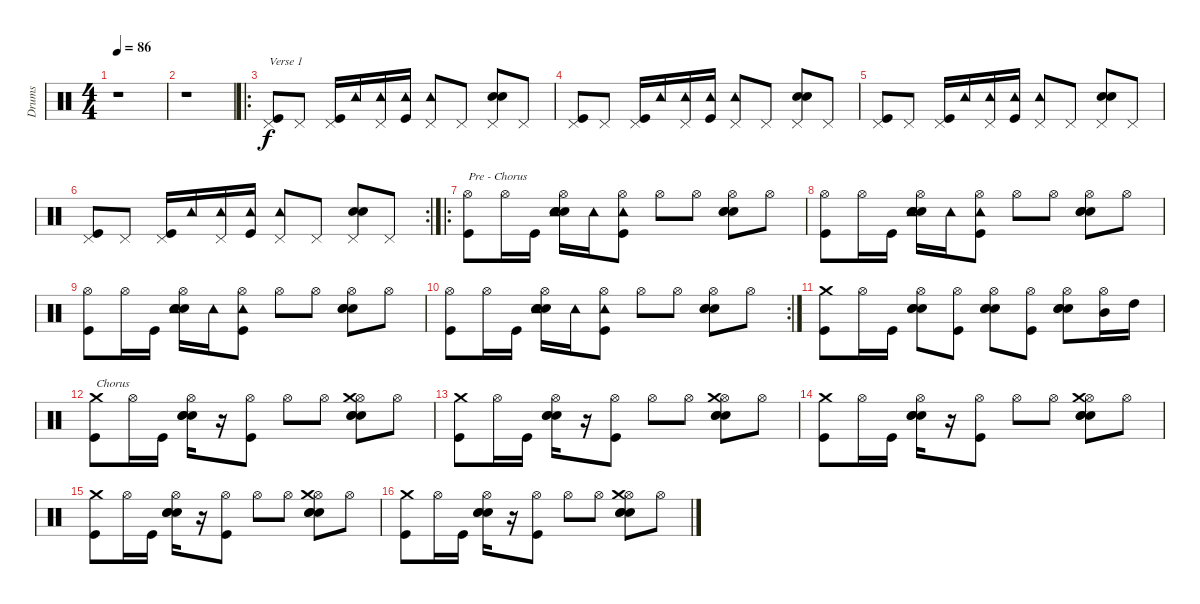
\track ("Drums" "Drums") {instrument percussion}
\staff {score}
\articulation defaults
\ts (4 4)
\tempo 86
\clef neutral
\ks c
r.1{dy f} |
r.1 |
\ro
("Kick (hit)" "Pedal Hi-Hat (hit)").8{txt "Verse 1"} "Pedal Hi-Hat (hit)".8 ("Kick (hit)" "Pedal Hi-Hat (hit)").16 "Tambourine (hit)".16 ("Pedal Hi-Hat (hit)" "Tambourine (hit)").16 ("Kick (hit)" "Tambourine (hit)").16 ("Pedal Hi-Hat (hit)" "Tambourine (hit)").8 "Pedal Hi-Hat (hit)".8 ("Electric Snare (hit)" "Pedal Hi-Hat (hit)" "Electric Snare (hit)").8 "Pedal Hi-Hat (hit)".8 |
("Kick (hit)" "Pedal Hi-Hat (hit)").8 "Pedal Hi-Hat (hit)".8 ("Kick (hit)" "Pedal Hi-Hat (hit)").16 "Tambourine (hit)".16 ("Pedal Hi-Hat (hit)" "Tambourine (hit)").16 ("Kick (hit)" "Tambourine (hit)").16 ("Pedal Hi-Hat (hit)" "Tambourine (hit)").8 "Pedal Hi-Hat (hit)".8 ("Electric Snare (hit)" "Pedal Hi-Hat (hit)" "Electric Snare (hit)").8 "Pedal Hi-Hat (hit)".8 |
("Kick (hit)" "Pedal Hi-Hat (hit)").8 "Pedal Hi-Hat (hit)".8 ("Kick (hit)" "Pedal Hi-Hat (hit)").16 "Tambourine (hit)".16 ("Pedal Hi-Hat (hit)" "Tambourine (hit)").16 ("Kick (hit)" "Tambourine (hit)").16 ("Pedal Hi-Hat (hit)" "Tambourine (hit)").8 "Pedal Hi-Hat (hit)".8 ("Electric Snare (hit)" "Pedal Hi-Hat (hit)" "Electric Snare (hit)").8 "Pedal Hi-Hat (hit)".8 |
\rc 2
("Kick (hit)" "Pedal Hi-Hat (hit)").8 "Pedal Hi-Hat (hit)".8 ("Kick (hit)" "Pedal Hi-Hat (hit)").16 "Tambourine (hit)".16 ("Pedal Hi-Hat (hit)" "Tambourine (hit)").16 ("Kick (hit)" "Tambourine (hit)").16 ("Pedal Hi-Hat (hit)" "Tambourine (hit)").8 "Pedal Hi-Hat (hit)".8 ("Electric Snare (hit)" "Pedal Hi-Hat (hit)" "Electric Snare (hit)").8 "Pedal Hi-Hat (hit)".8 |
\ro
("Kick (hit)" "Hi-Hat (open)").8{txt "Pre - Chorus"} "Hi-Hat (open)".16 "Kick (hit)".16 ("Electric Snare (hit)" "Hi-Hat (open)" "Tambourine (hit)" "Electric Snare (hit)" "Electric Snare (hit)").16 "Tambourine (hit)".16 ("Kick (hit)" "Hi-Hat (open)" "Tambourine (hit)").8 "Hi-Hat (open)".8 "Hi-Hat (open)".8 ("Electric Snare (hit)" "Hi-Hat (open)" "Electric Snare (hit)" "Electric Snare (hit)").8 "Hi-Hat (open)".8 |
("Kick (hit)" "Hi-Hat (open)").8 "Hi-Hat (open)".16 "Kick (hit)".16 ("Electric Snare (hit)" "Hi-Hat (open)" "Tambourine (hit)" "Electric Snare (hit)" "Electric Snare (hit)").16 "Tambourine (hit)".16 ("Kick (hit)" "Hi-Hat (open)" "Tambourine (hit)").8 "Hi-Hat (open)".8 "Hi-Hat (open)".8 ("Electric Snare (hit)" "Hi-Hat (open)" "Electric Snare (hit)" "Electric Snare (hit)").8 "Hi-Hat (open)".8 |
("Kick (hit)" "Hi-Hat (open)").8 "Hi-Hat (open)".16 "Kick (hit)".16 ("Electric Snare (hit)" "Hi-Hat (open)" "Tambourine (hit)" "Electric Snare (hit)" "Electric Snare (hit)").16 "Tambourine (hit)".16 ("Kick (hit)" "Hi-Hat (open)" "Tambourine (hit)").8 "Hi-Hat (open)".8 "Hi-Hat (open)".8 ("Electric Snare (hit)" "Hi-Hat (open)" "Electric Snare (hit)" "Electric Snare (hit)").8 "Hi-Hat (open)".8 |
\rc 2
("Kick (hit)" "Hi-Hat (open)").8 "Hi-Hat (open)".16 "Kick (hit)".16 ("Electric Snare (hit)" "Hi-Hat (open)" "Tambourine (hit)" "Electric Snare (hit)" "Electric Snare (hit)").16 "Tambourine (hit)".16 ("Kick (hit)" "Hi-Hat (open)" "Tambourine (hit)").8 "Hi-Hat (open)".8 "Hi-Hat (open)".8 ("Electric Snare (hit)" "Hi-Hat (open)" "Electric Snare (hit)" "Electric Snare (hit)").8 "Hi-Hat (open)".8 |
("Crash medium (hit)" "Kick (hit)").8 "Hi-Hat (open)".16 "Kick (hit)".16 ("Hi-Hat (open)" "Electric Snare (hit)" "Electric Snare (hit)" "Electric Snare (hit)").8 ("Hi-Hat (open)" "Kick (hit)").8 ("Hi-Hat (open)" "Electric Snare (hit)" "Electric Snare (hit)" "Electric Snare (hit)").8 ("Hi-Hat (open)" "Kick (hit)").8 ("Hi-Hat (open)" "Electric Snare (hit)" "Electric Snare (hit)" "Electric Snare (hit)").8 ("Hi-Hat (open)" "Mid Tom (hit)").16 "High Tom (hit)".16 |
("Kick (hit)" "Crash medium (hit)").8{txt "Chorus"} "Hi-Hat (open)".16 "Kick (hit)".16 ("Electric Snare (hit)" "Hi-Hat (open)" "Electric Snare (hit)" "Electric Snare (hit)").16 r.16 ("Kick (hit)" "Hi-Hat (open)").8 "Hi-Hat (open)".8 "Hi-Hat (open)".8 ("Electric Snare (hit)" "Hi-Hat (open)" "Electric Snare (hit)" "Electric Snare (hit)" "Crash medium (hit)").8 "Hi-Hat (open)".8 |
("Kick (hit)" "Crash medium (hit)").8 "Hi-Hat (open)".16 "Kick (hit)".16 ("Electric Snare (hit)" "Hi-Hat (open)" "Electric Snare (hit)" "Electric Snare (hit)").16 r.16 ("Kick (hit)" "Hi-Hat (open)").8 "Hi-Hat (open)".8 "Hi-Hat (open)".8 ("Electric Snare (hit)" "Hi-Hat (open)" "Electric Snare (hit)" "Electric Snare (hit)" "Crash medium (hit)").8 "Hi-Hat (open)".8 |
("Kick (hit)" "Crash medium (hit)").8 "Hi-Hat (open)".16 "Kick (hit)".16 ("Electric Snare (hit)" "Hi-Hat (open)" "Electric Snare (hit)" "Electric Snare (hit)").16 r.16 ("Kick (hit)" "Hi-Hat (open)").8 "Hi-Hat (open)".8 "Hi-Hat (open)".8 ("Electric Snare (hit)" "Hi-Hat (open)" "Electric Snare (hit)" "Electric Snare (hit)" "Crash medium (hit)").8 "Hi-Hat (open)".8 |
("Kick (hit)" "Crash medium (hit)").8 "Hi-Hat (open)".16 "Kick (hit)".16 ("Electric Snare (hit)" "Hi-Hat (open)" "Electric Snare (hit)" "Electric Snare (hit)").16 r.16 ("Kick (hit)" "Hi-Hat (open)").8 "Hi-Hat (open)".8 "Hi-Hat (open)".8 ("Electric Snare (hit)" "Hi-Hat (open)" "Electric Snare (hit)" "Electric Snare (hit)" "Crash medium (hit)").8 "Hi-Hat (open)".8 |
("Kick (hit)" "Crash medium (hit)").8 "Hi-Hat (open)".16 "Kick (hit)".16 ("Electric Snare (hit)" "Hi-Hat (open)" "Electric Snare (hit)" "Electric Snare (hit)").16 r.16 ("Kick (hit)" "Hi-Hat (open)").8 "Hi-Hat (open)".8 "Hi-Hat (open)".8 ("Electric Snare (hit)" "Hi-Hat (open)" "Electric Snare (hit)" "Electric Snare (hit)" "Crash medium (hit)").8 "Hi-Hat (open)".8
